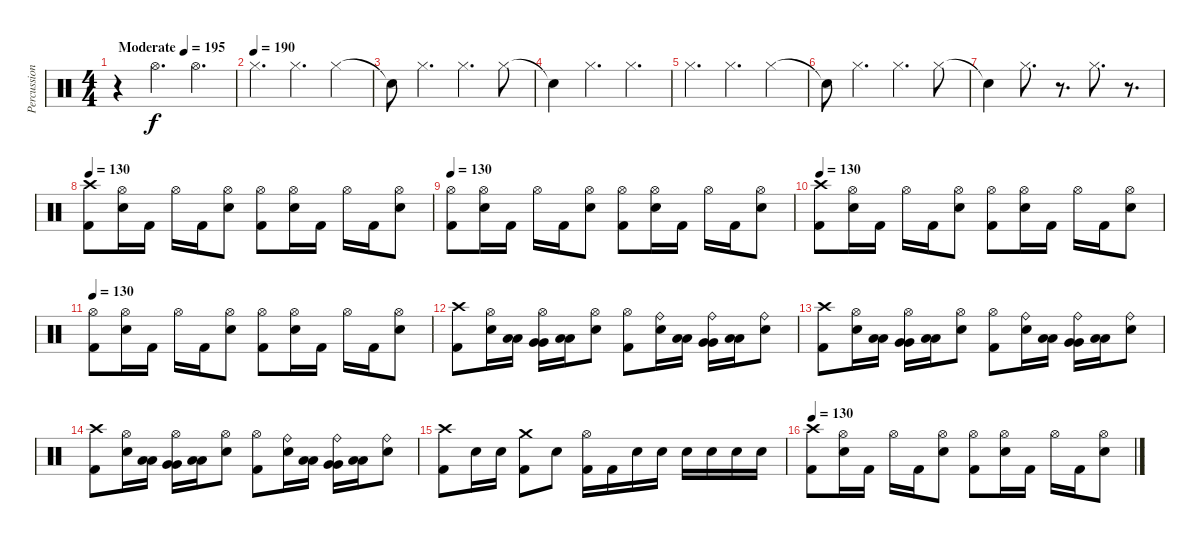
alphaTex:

\track ("Percussions" "Percussion") {instrument percussion}
\staff {score}
\articulation defaults
\ts (4 4)
\tempo (195 "Moderate")
\clef neutral
\ks c
r.4{dy f} "Hi-Hat (open)".4{d} "Hi-Hat (open)".4{d} |
\tempo (190)
"Hi-Hat (closed)".4{d} "Hi-Hat (closed)".4{d} "Hi-Hat (closed)".4 |
"Snare (hit)"{t}.8 "Hi-Hat (closed)".4{d} "Hi-Hat (closed)".4{d} "Hi-Hat (closed)".8 |
"Snare (hit)"{t}.4 "Hi-Hat (closed)".4{d} "Hi-Hat (closed)".4{d} |
"Hi-Hat (closed)".4{d} "Hi-Hat (closed)".4{d} "Hi-Hat (closed)".4 |
"Snare (hit)"{t}.8 "Hi-Hat (closed)".4{d} "Hi-Hat (closed)".4{d} "Hi-Hat (closed)".8 |
"Snare (hit)"{t}.4 "Hi-Hat (closed)".8{d} r.8{d} "Hi-Hat (closed)".8{d} r.8{d} |
\tempo 130
("Crash high (hit)" "Kick (hit) 2").8 ("Hi-Hat (open)" "Snare (hit) 2").16 "Kick (hit) 2".16 "Hi-Hat (open)".16 "Kick (hit) 2".16 ("Hi-Hat (open)" "Snare (hit) 2").8 ("Hi-Hat (open)" "Kick (hit) 2").8 ("Hi-Hat (open)" "Snare (hit) 2").16 "Kick (hit) 2".16 "Hi-Hat (open)".16 "Kick (hit) 2".16 ("Hi-Hat (open)" "Snare (hit) 2").8 |
\tempo 130
("Hi-Hat (open)" "Kick (hit) 2").8 ("Hi-Hat (open)" "Snare (hit) 2").16 "Kick (hit) 2".16 "Hi-Hat (open)".16 "Kick (hit) 2".16 ("Hi-Hat (open)" "Snare (hit) 2").8 ("Hi-Hat (open)" "Kick (hit) 2").8 ("Hi-Hat (open)" "Snare (hit) 2").16 "Kick (hit) 2".16 "Hi-Hat (open)".16 "Kick (hit) 2".16 ("Hi-Hat (open)" "Snare (hit) 2").8 |
\tempo 130
("Crash high (hit)" "Kick (hit) 2").8 ("Hi-Hat (open)" "Snare (hit) 2").16 "Kick (hit) 2".16 "Hi-Hat (open)".16 "Kick (hit) 2".16 ("Hi-Hat (open)" "Snare (hit) 2").8 ("Hi-Hat (open)" "Kick (hit) 2").8 ("Hi-Hat (open)" "Snare (hit) 2").16 "Kick (hit) 2".16 "Hi-Hat (open)".16 "Kick (hit) 2".16 ("Hi-Hat (open)" "Snare (hit) 2").8 |
\tempo 130
("Hi-Hat (open)" "Kick (hit) 2").8 ("Hi-Hat (open)" "Snare (hit) 2").16 "Kick (hit) 2".16 "Hi-Hat (open)".16 "Kick (hit) 2".16 ("Hi-Hat (open)" "Snare (hit) 2").8 ("Hi-Hat (open)" "Kick (hit) 2").8 ("Hi-Hat (open)" "Snare (hit) 2").16 "Kick (hit) 2".16 "Hi-Hat (open)".16 "Kick (hit) 2".16 ("Hi-Hat (open)" "Snare (hit) 2").8 |
("Crash high (hit)" "Kick (hit) 2").8 ("Hi-Hat (open)" "Snare (hit) 2").16 ("Low Tom (hit)" "Low Tom (hit)").16 ("Hi-Hat (open)" "Very Low Tom (hit)" "Very Low Tom (hit)").16 ("Low Floor Tom (hit)" "Low Floor Tom (hit)").16 ("Hi-Hat (open)" "Snare (hit) 2").8 ("Hi-Hat (open)" "Kick (hit) 2").8 ("Ride (bell)" "Snare (hit) 2").16 ("Low Tom (hit)" "Low Tom (hit)").16 ("Ride (bell)" "Very Low Tom (hit)" "Very Low Tom (hit)").16 ("Low Floor Tom (hit)" "Low Floor Tom (hit)").16 ("Ride (bell)" "Snare (hit) 2").8 |
("Crash high (hit)" "Kick (hit) 2").8 ("Hi-Hat (open)" "Snare (hit) 2").16 ("Low Tom (hit)" "Low Tom (hit)").16 ("Hi-Hat (open)" "Very Low Tom (hit)" "Very Low Tom (hit)").16 ("Low Floor Tom (hit)" "Low Floor Tom (hit)").16 ("Hi-Hat (open)" "Snare (hit) 2").8 ("Hi-Hat (open)" "Kick (hit) 2").8 ("Ride (bell)" "Snare (hit) 2").16 ("Low Tom (hit)" "Low Tom (hit)").16 ("Ride (bell)" "Very Low Tom (hit)" "Very Low Tom (hit)").16 ("Low Floor Tom (hit)" "Low Floor Tom (hit)").16 ("Ride (bell)" "Snare (hit) 2").8 |
("Crash high (hit)" "Kick (hit) 2").8 ("Hi-Hat (open)" "Snare (hit) 2").16 ("Low Tom (hit)" "Low Tom (hit)").16 ("Hi-Hat (open)" "Very Low Tom (hit)" "Very Low Tom (hit)").16 ("Low Floor Tom (hit)" "Low Floor Tom (hit)").16 ("Hi-Hat (open)" "Snare (hit) 2").8 ("Hi-Hat (open)" "Kick (hit) 2").8 ("Ride (bell)" "Snare (hit) 2").16 ("Low Tom (hit)" "Low Tom (hit)").16 ("Ride (bell)" "Very Low Tom (hit)" "Very Low Tom (hit)").16 ("Low Floor Tom (hit)" "Low Floor Tom (hit)").16 ("Ride (bell)" "Snare (hit) 2").8 |
("Crash high (hit)" "Kick (hit) 2").8 "Snare (hit) 2".16 "Snare (hit) 2".16 ("Crash medium (hit)" "Kick (hit) 2").8 "Snare (hit) 2".8 ("Hi-Hat (open)" "Kick (hit) 2").16 "Kick (hit) 2".16 "Snare (hit) 2".16 "Snare (hit) 2".16 "Snare (hit) 2".16 "Snare (hit) 2".16 "Snare (hit) 2".16 "Snare (hit) 2".16 |
\tempo 130
("Crash high (hit)" "Kick (hit) 2").8 ("Hi-Hat (open)" "Snare (hit) 2").16 "Kick (hit) 2".16 "Hi-Hat (open)".16 "Kick (hit) 2".16 ("Hi-Hat (open)" "Snare (hit) 2").8 ("Hi-Hat (open)" "Kick (hit) 2").8 ("Hi-Hat (open)" "Snare (hit) 2").16 "Kick (hit) 2".16 "Hi-Hat (open)".16 "Kick (hit) 2".16 ("Hi-Hat (open)" "Snare (hit) 2").8
